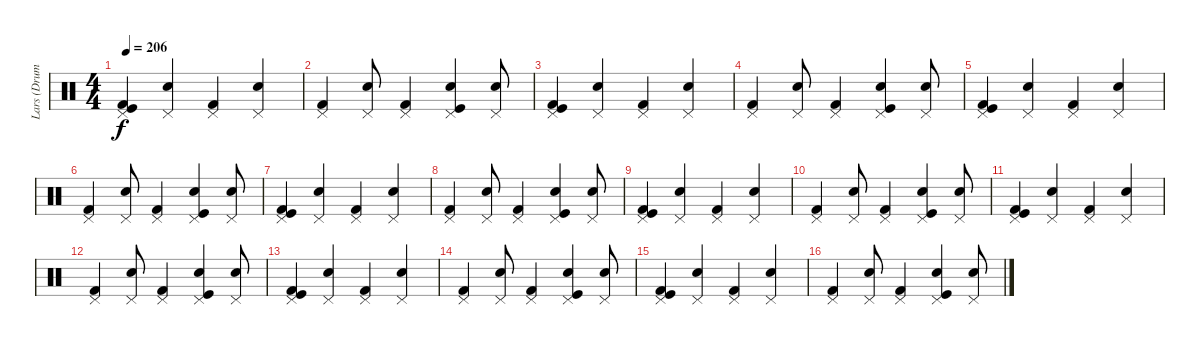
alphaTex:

\track ("Lars (Drums)" "Lars (Drum") {instrument percussion}
\staff {score}
\articulation defaults
\ts (4 4)
\tempo 206
\clef neutral
\ks c
("Kick (hit) 2" "Pedal Hi-Hat (hit)" "Kick (hit)").4{dy f} ("Snare (hit) 2" "Pedal Hi-Hat (hit)").4 ("Kick (hit) 2" "Pedal Hi-Hat (hit)").4 ("Snare (hit) 2" "Pedal Hi-Hat (hit)").4 |
("Kick (hit) 2" "Pedal Hi-Hat (hit)").4 ("Snare (hit) 2" "Pedal Hi-Hat (hit)").8 ("Kick (hit) 2" "Pedal Hi-Hat (hit)").4 ("Snare (hit) 2" "Pedal Hi-Hat (hit)" "Kick (hit)").4 ("Snare (hit) 2" "Pedal Hi-Hat (hit)").8 |
("Kick (hit) 2" "Pedal Hi-Hat (hit)" "Kick (hit)").4 ("Snare (hit) 2" "Pedal Hi-Hat (hit)").4 ("Kick (hit) 2" "Pedal Hi-Hat (hit)").4 ("Snare (hit) 2" "Pedal Hi-Hat (hit)").4 |
("Kick (hit) 2" "Pedal Hi-Hat (hit)").4 ("Snare (hit) 2" "Pedal Hi-Hat (hit)").8 ("Kick (hit) 2" "Pedal Hi-Hat (hit)").4 ("Snare (hit) 2" "Pedal Hi-Hat (hit)" "Kick (hit)").4 ("Snare (hit) 2" "Pedal Hi-Hat (hit)").8 |
("Kick (hit) 2" "Pedal Hi-Hat (hit)" "Kick (hit)").4 ("Snare (hit) 2" "Pedal Hi-Hat (hit)").4 ("Kick (hit) 2" "Pedal Hi-Hat (hit)").4 ("Snare (hit) 2" "Pedal Hi-Hat (hit)").4 |
("Kick (hit) 2" "Pedal Hi-Hat (hit)").4 ("Snare (hit) 2" "Pedal Hi-Hat (hit)").8 ("Kick (hit) 2" "Pedal Hi-Hat (hit)").4 ("Snare (hit) 2" "Pedal Hi-Hat (hit)" "Kick (hit)").4 ("Snare (hit) 2" "Pedal Hi-Hat (hit)").8 |
("Kick (hit) 2" "Pedal Hi-Hat (hit)" "Kick (hit)").4 ("Snare (hit) 2" "Pedal Hi-Hat (hit)").4 ("Kick (hit) 2" "Pedal Hi-Hat (hit)").4 ("Snare (hit) 2" "Pedal Hi-Hat (hit)").4 |
("Kick (hit) 2" "Pedal Hi-Hat (hit)").4 ("Snare (hit) 2" "Pedal Hi-Hat (hit)").8 ("Kick (hit) 2" "Pedal Hi-Hat (hit)").4 ("Snare (hit) 2" "Pedal Hi-Hat (hit)" "Kick (hit)").4 ("Snare (hit) 2" "Pedal Hi-Hat (hit)").8 |
("Kick (hit) 2" "Pedal Hi-Hat (hit)" "Kick (hit)").4 ("Snare (hit) 2" "Pedal Hi-Hat (hit)").4 ("Kick (hit) 2" "Pedal Hi-Hat (hit)").4 ("Snare (hit) 2" "Pedal Hi-Hat (hit)").4 |
("Kick (hit) 2" "Pedal Hi-Hat (hit)").4 ("Snare (hit) 2" "Pedal Hi-Hat (hit)").8 ("Kick (hit) 2" "Pedal Hi-Hat (hit)").4 ("Snare (hit) 2" "Pedal Hi-Hat (hit)" "Kick (hit)").4 ("Snare (hit) 2" "Pedal Hi-Hat (hit)").8 |
("Kick (hit) 2" "Pedal Hi-Hat (hit)" "Kick (hit)").4 ("Snare (hit) 2" "Pedal Hi-Hat (hit)").4 ("Kick (hit) 2" "Pedal Hi-Hat (hit)").4 ("Snare (hit) 2" "Pedal Hi-Hat (hit)").4 |
("Kick (hit) 2" "Pedal Hi-Hat (hit)").4 ("Snare (hit) 2" "Pedal Hi-Hat (hit)").8 ("Kick (hit) 2" "Pedal Hi-Hat (hit)").4 ("Snare (hit) 2" "Pedal Hi-Hat (hit)" "Kick (hit)").4 ("Snare (hit) 2" "Pedal Hi-Hat (hit)").8 |
("Kick (hit) 2" "Pedal Hi-Hat (hit)" "Kick (hit)").4 ("Snare (hit) 2" "Pedal Hi-Hat (hit)").4 ("Kick (hit) 2" "Pedal Hi-Hat (hit)").4 ("Snare (hit) 2" "Pedal Hi-Hat (hit)").4 |
("Kick (hit) 2" "Pedal Hi-Hat (hit)").4 ("Snare (hit) 2" "Pedal Hi-Hat (hit)").8 ("Kick (hit) 2" "Pedal Hi-Hat (hit)").4 ("Snare (hit) 2" "Pedal Hi-Hat (hit)" "Kick (hit)").4 ("Snare (hit) 2" "Pedal Hi-Hat (hit)").8 |
("Kick (hit) 2" "Pedal Hi-Hat (hit)" "Kick (hit)").4 ("Snare (hit) 2" "Pedal Hi-Hat (hit)").4 ("Kick (hit) 2" "Pedal Hi-Hat (hit)").4 ("Snare (hit) 2" "Pedal Hi-Hat (hit)").4 |
("Kick (hit) 2" "Pedal Hi-Hat (hit)").4 ("Snare (hit) 2" "Pedal Hi-Hat (hit)").8 ("Kick (hit) 2" "Pedal Hi-Hat (hit)").4 ("Snare (hit) 2" "Pedal Hi-Hat (hit)" "Kick (hit)").4 ("Snare (hit) 2" "Pedal Hi-Hat (hit)").8
